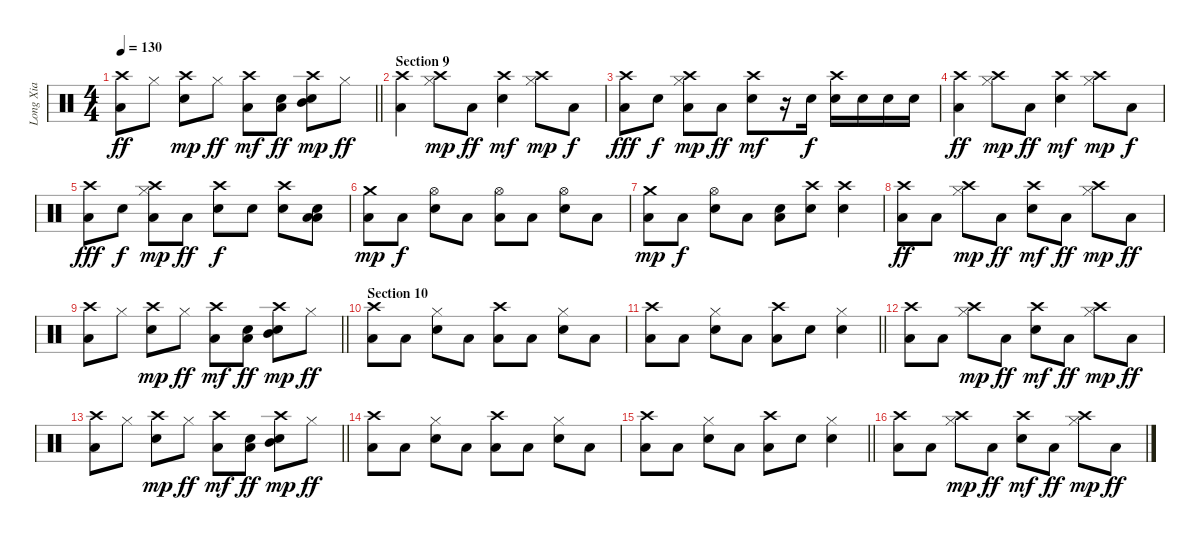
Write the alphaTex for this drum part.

\track ("Long Xia" "Long Xia") {instrument percussion}
\staff {score}
\articulation defaults
\ts (4 4)
\tempo 130
\clef neutral
\barLineRight lightlight
\ks c
("Low Floor Tom (hit)" "Crash high (hit)").8{dy ff} "Hi-Hat (closed)".8 ("Electric Snare (hit)" "Crash high (hit)").8{dy mp} "Hi-Hat (closed)".8{dy ff} ("Low Floor Tom (hit)" "Crash high (hit)").8{dy mf} ("Electric Snare (hit)" "Low Tom (hit)").8{dy ff} ("Electric Snare (hit)" "Mid Tom (hit)" "Crash high (hit)").8{dy mp} "Hi-Hat (closed)".8{dy ff} |
\section ("" "Section 9")
("Low Floor Tom (hit)" "Crash high (hit)").4 ("Hi-Hat (closed)" "Crash high (hit)").8{dy mp} "Low Floor Tom (hit)".8{dy ff} ("Electric Snare (hit)" "Crash high (hit)").4{dy mf} ("Hi-Hat (closed)" "Crash high (hit)").8{dy mp} "Low Floor Tom (hit)".8{dy f} |
("Low Floor Tom (hit)" "Crash high (hit)").8{dy fff} "Electric Snare (hit)".8{dy f} ("Low Floor Tom (hit)" "Hi-Hat (closed)" "Crash high (hit)").8{dy mp} "Low Floor Tom (hit)".8{dy ff} ("Electric Snare (hit)" "Crash high (hit)").8{dy mf} r.16 "Electric Snare (hit)".16{dy f} ("Electric Snare (hit)" "Crash high (hit)").16 "Electric Snare (hit)".16 "Electric Snare (hit)".16 "Electric Snare (hit)".16 |
("Low Floor Tom (hit)" "Crash high (hit)").4{dy ff} ("Hi-Hat (closed)" "Crash high (hit)").8{dy mp} "Low Floor Tom (hit)".8{dy ff} ("Electric Snare (hit)" "Crash high (hit)").4{dy mf} ("Hi-Hat (closed)" "Crash high (hit)").8{dy mp} "Low Floor Tom (hit)".8{dy f} |
("Low Floor Tom (hit)" "Crash high (hit)").8{dy fff} "Electric Snare (hit)".8{dy f} ("Low Floor Tom (hit)" "Hi-Hat (closed)" "Crash high (hit)").8{dy mp} "Low Floor Tom (hit)".8{dy ff} ("Electric Snare (hit)" "Crash high (hit)").8{dy f} "Electric Snare (hit)".8 ("Electric Snare (hit)" "Crash high (hit)").8 ("Electric Snare (hit)" "Low Floor Tom (hit)" "Low Floor Tom (hit)").8 |
("Low Floor Tom (hit)" "Crash medium (hit)").8{dy mp} "Low Floor Tom (hit)".8{dy f} ("Electric Snare (hit)" "Hi-Hat (open)").8 "Low Floor Tom (hit)".8 ("Low Floor Tom (hit)" "Hi-Hat (open)").8 "Low Floor Tom (hit)".8 ("Electric Snare (hit)" "Hi-Hat (open)").8 "Low Floor Tom (hit)".8 |
("Low Floor Tom (hit)" "Crash medium (hit)").8{dy mp} "Low Floor Tom (hit)".8{dy f} ("Electric Snare (hit)" "Hi-Hat (open)").8 "Low Floor Tom (hit)".8 ("Low Floor Tom (hit)" "Electric Snare (hit)").8 ("Electric Snare (hit)" "Crash high (hit)").8 ("Electric Snare (hit)" "Crash high (hit)").4 |
("Low Floor Tom (hit)" "Crash high (hit)").8{dy ff} "Low Floor Tom (hit)".8 ("Hi-Hat (closed)" "Crash high (hit)").8{dy mp} "Low Floor Tom (hit)".8{dy ff} ("Electric Snare (hit)" "Crash high (hit)").8{dy mf} "Low Floor Tom (hit)".8{dy ff} ("Hi-Hat (closed)" "Crash high (hit)").8{dy mp} "Low Floor Tom (hit)".8{dy ff} |
\barLineRight lightlight
("Low Floor Tom (hit)" "Crash high (hit)").8 "Hi-Hat (closed)".8 ("Electric Snare (hit)" "Crash high (hit)").8{dy mp} "Hi-Hat (closed)".8{dy ff} ("Low Floor Tom (hit)" "Crash high (hit)").8{dy mf} ("Electric Snare (hit)" "Low Tom (hit)").8{dy ff} ("Electric Snare (hit)" "Mid Tom (hit)" "Crash high (hit)").8{dy mp} "Hi-Hat (closed)".8{dy ff} |
\section ("" "Section 10")
("Low Floor Tom (hit)" "Crash high (hit)").8 "Low Floor Tom (hit)".8 ("Electric Snare (hit)" "Hi-Hat (closed)").8 "Low Floor Tom (hit)".8 ("Low Floor Tom (hit)" "Crash high (hit)").8 "Low Floor Tom (hit)".8 ("Electric Snare (hit)" "Hi-Hat (closed)").8 "Low Floor Tom (hit)".8 |
\barLineRight lightlight
("Low Floor Tom (hit)" "Crash high (hit)").8 "Low Floor Tom (hit)".8 ("Electric Snare (hit)" "Hi-Hat (closed)").8 "Low Floor Tom (hit)".8 ("Low Floor Tom (hit)" "Crash high (hit)").8 "Electric Snare (hit)".8 ("Electric Snare (hit)" "Hi-Hat (closed)").4 |
("Low Floor Tom (hit)" "Crash high (hit)").8 "Low Floor Tom (hit)".8 ("Hi-Hat (closed)" "Crash high (hit)").8{dy mp} "Low Floor Tom (hit)".8{dy ff} ("Electric Snare (hit)" "Crash high (hit)").8{dy mf} "Low Floor Tom (hit)".8{dy ff} ("Hi-Hat (closed)" "Crash high (hit)").8{dy mp} "Low Floor Tom (hit)".8{dy ff} |
\barLineRight lightlight
("Low Floor Tom (hit)" "Crash high (hit)").8 "Hi-Hat (closed)".8 ("Electric Snare (hit)" "Crash high (hit)").8{dy mp} "Hi-Hat (closed)".8{dy ff} ("Low Floor Tom (hit)" "Crash high (hit)").8{dy mf} ("Electric Snare (hit)" "Low Tom (hit)").8{dy ff} ("Electric Snare (hit)" "Mid Tom (hit)" "Crash high (hit)").8{dy mp} "Hi-Hat (closed)".8{dy ff} |
("Low Floor Tom (hit)" "Crash high (hit)").8 "Low Floor Tom (hit)".8 ("Electric Snare (hit)" "Hi-Hat (closed)").8 "Low Floor Tom (hit)".8 ("Low Floor Tom (hit)" "Crash high (hit)").8 "Low Floor Tom (hit)".8 ("Electric Snare (hit)" "Hi-Hat (closed)").8 "Low Floor Tom (hit)".8 |
\barLineRight lightlight
("Low Floor Tom (hit)" "Crash high (hit)").8 "Low Floor Tom (hit)".8 ("Electric Snare (hit)" "Hi-Hat (closed)").8 "Low Floor Tom (hit)".8 ("Low Floor Tom (hit)" "Crash high (hit)").8 "Electric Snare (hit)".8 ("Electric Snare (hit)" "Hi-Hat (closed)").4 |
("Low Floor Tom (hit)" "Crash high (hit)").8 "Low Floor Tom (hit)".8 ("Hi-Hat (closed)" "Crash high (hit)").8{dy mp} "Low Floor Tom (hit)".8{dy ff} ("Electric Snare (hit)" "Crash high (hit)").8{dy mf} "Low Floor Tom (hit)".8{dy ff} ("Hi-Hat (closed)" "Crash high (hit)").8{dy mp} "Low Floor Tom (hit)".8{dy ff}
